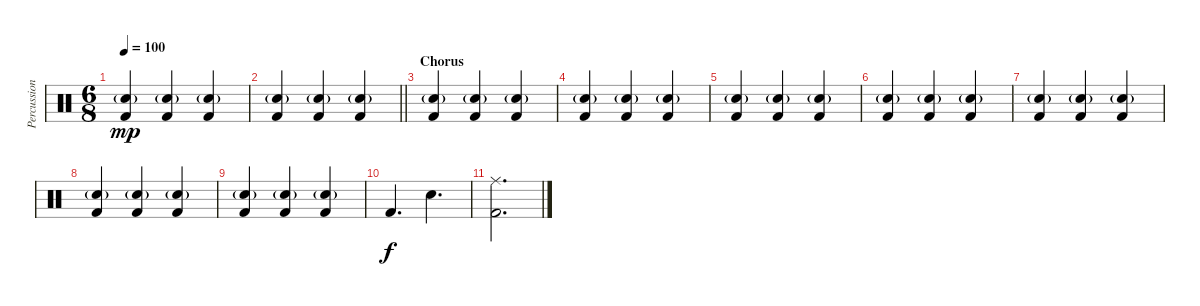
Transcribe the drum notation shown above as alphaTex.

\track ("Percussion" "Percussion") {instrument percussion}
\staff {score}
\articulation defaults
\ts (6 8)
\tempo 100
\clef neutral
\ks c
("Snare (hit) 2"{g} "Kick (hit) 2").4{dy mp} ("Snare (hit) 2"{g} "Kick (hit) 2").4 ("Snare (hit) 2"{g} "Kick (hit) 2").4 |
\barLineRight lightlight
("Snare (hit) 2"{g} "Kick (hit) 2").4 ("Snare (hit) 2"{g} "Kick (hit) 2").4 ("Snare (hit) 2"{g} "Kick (hit) 2").4 |
\section ("" "Chorus")
("Snare (hit) 2"{g} "Kick (hit) 2").4 ("Snare (hit) 2"{g} "Kick (hit) 2").4 ("Snare (hit) 2"{g} "Kick (hit) 2").4 |
("Snare (hit) 2"{g} "Kick (hit) 2").4 ("Snare (hit) 2"{g} "Kick (hit) 2").4 ("Snare (hit) 2"{g} "Kick (hit) 2").4 |
("Snare (hit) 2"{g} "Kick (hit) 2").4 ("Snare (hit) 2"{g} "Kick (hit) 2").4 ("Snare (hit) 2"{g} "Kick (hit) 2").4 |
("Snare (hit) 2"{g} "Kick (hit) 2").4 ("Snare (hit) 2"{g} "Kick (hit) 2").4 ("Snare (hit) 2"{g} "Kick (hit) 2").4 |
("Snare (hit) 2"{g} "Kick (hit) 2").4 ("Snare (hit) 2"{g} "Kick (hit) 2").4 ("Snare (hit) 2"{g} "Kick (hit) 2").4 |
("Snare (hit) 2"{g} "Kick (hit) 2").4 ("Snare (hit) 2"{g} "Kick (hit) 2").4 ("Snare (hit) 2"{g} "Kick (hit) 2").4 |
("Snare (hit) 2"{g} "Kick (hit) 2").4 ("Snare (hit) 2"{g} "Kick (hit) 2").4 ("Snare (hit) 2"{g} "Kick (hit) 2").4 |
"Kick (hit) 2".4{d dy f} "Snare (hit) 2".4{d} |
("Ride (middle)" "Kick (hit) 2").2{d}
